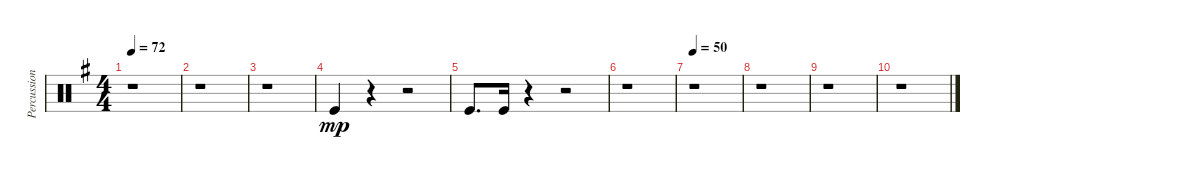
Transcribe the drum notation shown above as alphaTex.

\track ("Percussions" "Percussion") {instrument percussion}
\staff {score}
\articulation defaults
\ts (4 4)
\tempo 72
\clef neutral
\ks eminor
r.1{dy f} |
r.1 |
r.1 |
"Kick (hit)".4{dy mp} r.4 r.2 |
"Kick (hit)".8{d} "Kick (hit)".16 r.4 r.2 |
r.1 |
\tempo 50
r.1 |
r.1 |
r.1 |
r.1
